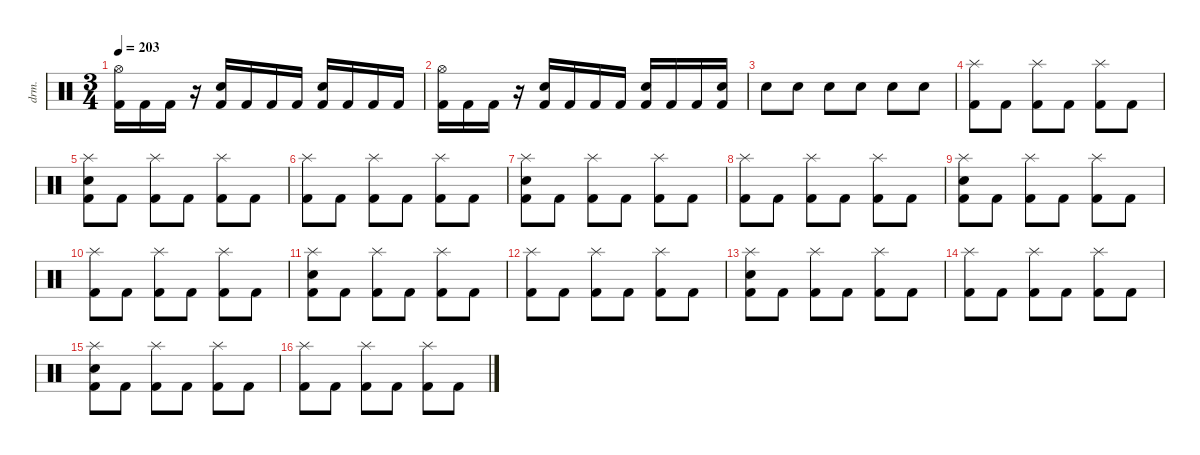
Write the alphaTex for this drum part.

\defaultSystemsLayout 4
\hideDynamics
\bracketExtendMode nobrackets
\otherSystemsTrackNameOrientation horizontal
\track ("Drums" "drm.") {instrument percussion}
\staff {score}
\articulation defaults
\ts (3 4)
\tempo 203
\clef neutral
\ks c
("Hi-Hat (open)" "Kick (hit) 2").16{dy f beam Down} "Kick (hit) 2".16{beam Down} "Kick (hit) 2".16{beam Down} r.16{beam Down} ("Snare (hit) 2" "Kick (hit) 2").16{beam Up} "Kick (hit) 2".16{beam Up} "Kick (hit) 2".16{beam Up} "Kick (hit) 2".16{beam Up} ("Snare (hit) 2" "Kick (hit) 2").16{beam Up} "Kick (hit) 2".16{beam Up} "Kick (hit) 2".16{beam Up} "Kick (hit) 2".16{beam Up} |
("Hi-Hat (open)" "Kick (hit) 2").16{beam Down} "Kick (hit) 2".16{beam Down} "Kick (hit) 2".16{beam Down} r.16{beam Down} ("Snare (hit) 2" "Kick (hit) 2").16{beam Up} "Kick (hit) 2".16{beam Up} "Kick (hit) 2".16{beam Up} "Kick (hit) 2".16{beam Up} ("Snare (hit) 2" "Kick (hit) 2").16{beam Up} "Kick (hit) 2".16{beam Up} "Kick (hit) 2".16{beam Up} ("Snare (hit) 2" "Kick (hit) 2").16{beam Up} |
"Snare (hit) 2".8{beam Down} "Snare (hit) 2".8{beam Down} "Snare (hit) 2".8{beam Down} "Snare (hit) 2".8{beam Down} "Snare (hit) 2".8{beam Down} "Snare (hit) 2".8{beam Down} |
("Splash (hit)" "Kick (hit) 2").8{beam Down} "Kick (hit) 2".8{beam Down} ("Splash (hit)" "Kick (hit) 2").8{beam Down} "Kick (hit) 2".8{beam Down} ("Splash (hit)" "Kick (hit) 2").8{beam Down} "Kick (hit) 2".8{beam Down} |
("Splash (hit)" "Snare (hit) 2" "Kick (hit) 2").8{beam Down} "Kick (hit) 2".8{beam Down} ("Splash (hit)" "Kick (hit) 2").8{beam Down} "Kick (hit) 2".8{beam Down} ("Splash (hit)" "Kick (hit) 2").8{beam Down} "Kick (hit) 2".8{beam Down} |
("Splash (hit)" "Kick (hit) 2").8{beam Down} "Kick (hit) 2".8{beam Down} ("Splash (hit)" "Kick (hit) 2").8{beam Down} "Kick (hit) 2".8{beam Down} ("Splash (hit)" "Kick (hit) 2").8{beam Down} "Kick (hit) 2".8{beam Down} |
("Splash (hit)" "Snare (hit) 2" "Kick (hit) 2").8{beam Down} "Kick (hit) 2".8{beam Down} ("Splash (hit)" "Kick (hit) 2").8{beam Down} "Kick (hit) 2".8{beam Down} ("Splash (hit)" "Kick (hit) 2").8{beam Down} "Kick (hit) 2".8{beam Down} |
("Splash (hit)" "Kick (hit) 2").8{beam Down} "Kick (hit) 2".8{beam Down} ("Splash (hit)" "Kick (hit) 2").8{beam Down} "Kick (hit) 2".8{beam Down} ("Splash (hit)" "Kick (hit) 2").8{beam Down} "Kick (hit) 2".8{beam Down} |
("Splash (hit)" "Snare (hit) 2" "Kick (hit) 2").8{beam Down} "Kick (hit) 2".8{beam Down} ("Splash (hit)" "Kick (hit) 2").8{beam Down} "Kick (hit) 2".8{beam Down} ("Splash (hit)" "Kick (hit) 2").8{beam Down} "Kick (hit) 2".8{beam Down} |
("Splash (hit)" "Kick (hit) 2").8{beam Down} "Kick (hit) 2".8{beam Down} ("Splash (hit)" "Kick (hit) 2").8{beam Down} "Kick (hit) 2".8{beam Down} ("Splash (hit)" "Kick (hit) 2").8{beam Down} "Kick (hit) 2".8{beam Down} |
("Splash (hit)" "Snare (hit) 2" "Kick (hit) 2").8{beam Down} "Kick (hit) 2".8{beam Down} ("Splash (hit)" "Kick (hit) 2").8{beam Down} "Kick (hit) 2".8{beam Down} ("Splash (hit)" "Kick (hit) 2").8{beam Down} "Kick (hit) 2".8{beam Down} |
("Splash (hit)" "Kick (hit) 2").8{beam Down} "Kick (hit) 2".8{beam Down} ("Splash (hit)" "Kick (hit) 2").8{beam Down} "Kick (hit) 2".8{beam Down} ("Splash (hit)" "Kick (hit) 2").8{beam Down} "Kick (hit) 2".8{beam Down} |
("Splash (hit)" "Snare (hit) 2" "Kick (hit) 2").8{beam Down} "Kick (hit) 2".8{beam Down} ("Splash (hit)" "Kick (hit) 2").8{beam Down} "Kick (hit) 2".8{beam Down} ("Splash (hit)" "Kick (hit) 2").8{beam Down} "Kick (hit) 2".8{beam Down} |
("Splash (hit)" "Kick (hit) 2").8{beam Down} "Kick (hit) 2".8{beam Down} ("Splash (hit)" "Kick (hit) 2").8{beam Down} "Kick (hit) 2".8{beam Down} ("Splash (hit)" "Kick (hit) 2").8{beam Down} "Kick (hit) 2".8{beam Down} |
("Splash (hit)" "Snare (hit) 2" "Kick (hit) 2").8{beam Down} "Kick (hit) 2".8{beam Down} ("Splash (hit)" "Kick (hit) 2").8{beam Down} "Kick (hit) 2".8{beam Down} ("Splash (hit)" "Kick (hit) 2").8{beam Down} "Kick (hit) 2".8{beam Down} |
("Splash (hit)" "Kick (hit) 2").8{beam Down} "Kick (hit) 2".8{beam Down} ("Splash (hit)" "Kick (hit) 2").8{beam Down} "Kick (hit) 2".8{beam Down} ("Splash (hit)" "Kick (hit) 2").8{beam Down} "Kick (hit) 2".8{beam Down}
